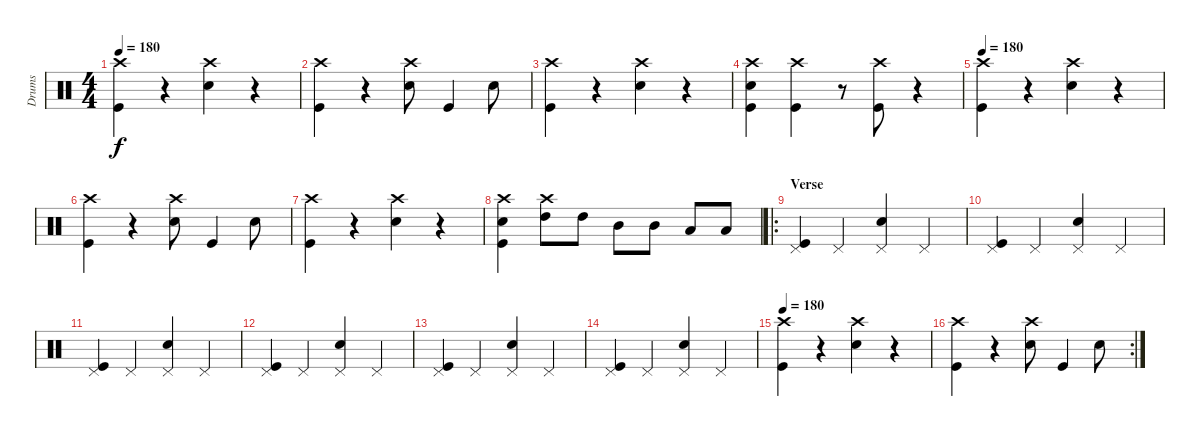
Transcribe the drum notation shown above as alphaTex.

\track ("Drums" "Drums") {instrument percussion}
\staff {score}
\articulation defaults
\ts (4 4)
\tempo 180
\clef neutral
\ks c
("Crash high (hit)" "Kick (hit)").4{dy f} r.4 ("Crash high (hit)" "Snare (hit) 2").4 r.4 |
("Crash high (hit)" "Kick (hit)").4 r.4 ("Crash high (hit)" "Snare (hit) 2").8 "Kick (hit)".4 "Snare (hit) 2".8 |
("Crash high (hit)" "Kick (hit)").4 r.4 ("Crash high (hit)" "Snare (hit) 2").4 r.4 |
("Crash high (hit)" "Snare (hit) 2" "Kick (hit)").4 ("Crash high (hit)" "Kick (hit)").4 r.8 ("Crash high (hit)" "Kick (hit)").8 r.4 |
\tempo 180
("Crash high (hit)" "Kick (hit)").4 r.4 ("Crash high (hit)" "Snare (hit) 2").4 r.4 |
("Crash high (hit)" "Kick (hit)").4 r.4 ("Crash high (hit)" "Snare (hit) 2").8 "Kick (hit)".4 "Snare (hit) 2".8 |
("Crash high (hit)" "Kick (hit)").4 r.4 ("Crash high (hit)" "Snare (hit) 2").4 r.4 |
("Crash high (hit)" "Snare (hit) 2" "Kick (hit)").4 ("Crash high (hit)" "High Tom (hit)").8 "High Tom (hit)".8 "Mid Tom (hit)".8 "Mid Tom (hit)".8 "Low Tom (hit)".8 "Low Tom (hit)".8 |
\ro
\section ("" "Verse")
("Pedal Hi-Hat (hit)" "Kick (hit)").4 "Pedal Hi-Hat (hit)".4 ("Pedal Hi-Hat (hit)" "Snare (hit) 2").4 "Pedal Hi-Hat (hit)".4 |
("Pedal Hi-Hat (hit)" "Kick (hit)").4 "Pedal Hi-Hat (hit)".4 ("Pedal Hi-Hat (hit)" "Snare (hit) 2").4 "Pedal Hi-Hat (hit)".4 |
("Pedal Hi-Hat (hit)" "Kick (hit)").4 "Pedal Hi-Hat (hit)".4 ("Pedal Hi-Hat (hit)" "Snare (hit) 2").4 "Pedal Hi-Hat (hit)".4 |
("Pedal Hi-Hat (hit)" "Kick (hit)").4 "Pedal Hi-Hat (hit)".4 ("Pedal Hi-Hat (hit)" "Snare (hit) 2").4 "Pedal Hi-Hat (hit)".4 |
("Pedal Hi-Hat (hit)" "Kick (hit)").4 "Pedal Hi-Hat (hit)".4 ("Pedal Hi-Hat (hit)" "Snare (hit) 2").4 "Pedal Hi-Hat (hit)".4 |
("Pedal Hi-Hat (hit)" "Kick (hit)").4 "Pedal Hi-Hat (hit)".4 ("Pedal Hi-Hat (hit)" "Snare (hit) 2").4 "Pedal Hi-Hat (hit)".4 |
\tempo 180
("Crash high (hit)" "Kick (hit)").4 r.4 ("Crash high (hit)" "Snare (hit) 2").4 r.4 |
\rc 2
("Crash high (hit)" "Kick (hit)").4 r.4 ("Crash high (hit)" "Snare (hit) 2").8 "Kick (hit)".4 "Snare (hit) 2".8
